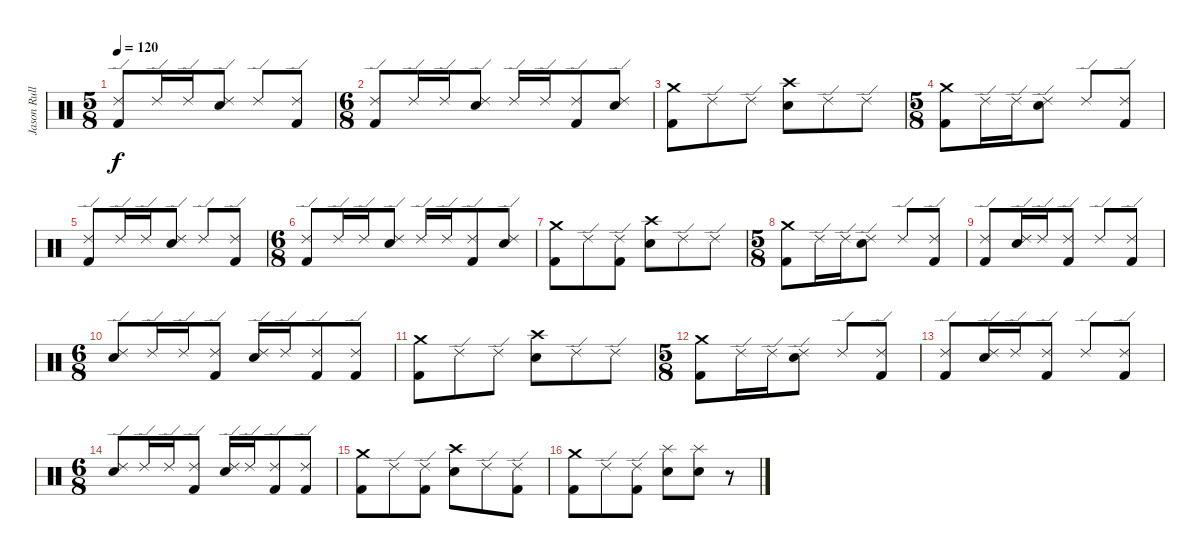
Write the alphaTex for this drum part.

\track ("Jason Rullo" "Jason Rull") {instrument percussion}
\staff {score}
\articulation defaults
\ts (5 8)
\tempo 120
\clef neutral
\ks c
("Kick (hit) 2" "Ride (edge) 2").8{dy f} "Ride (edge) 2".16 "Ride (edge) 2".16 ("Electric Snare (hit)" "Ride (edge) 2").8 "Ride (edge) 2".8 ("Kick (hit) 2" "Ride (edge) 2").8 |
\ts (6 8)
("Kick (hit) 2" "Ride (edge) 2").8 "Ride (edge) 2".16 "Ride (edge) 2".16 ("Electric Snare (hit)" "Ride (edge) 2").8 "Ride (edge) 2".16 "Ride (edge) 2".16 ("Kick (hit) 2" "Ride (edge) 2").8 ("Electric Snare (hit)" "Ride (edge) 2").8 |
("Kick (hit) 2" "Crash medium (hit)").8 "Ride (edge) 2".8 "Ride (edge) 2".8 ("Electric Snare (hit)" "Crash high (hit)").8 "Ride (edge) 2".8 "Ride (edge) 2".8 |
\ts (5 8)
("Kick (hit) 2" "Crash medium (hit)").8 "Ride (edge) 2".16 "Ride (edge) 2".16 ("Electric Snare (hit)" "Ride (edge) 2").8 "Ride (edge) 2".8 ("Kick (hit) 2" "Ride (edge) 2").8 |
("Kick (hit) 2" "Ride (edge) 2").8 "Ride (edge) 2".16 "Ride (edge) 2".16 ("Electric Snare (hit)" "Ride (edge) 2").8 "Ride (edge) 2".8 ("Kick (hit) 2" "Ride (edge) 2").8 |
\ts (6 8)
("Kick (hit) 2" "Ride (edge) 2").8 "Ride (edge) 2".16 "Ride (edge) 2".16 ("Electric Snare (hit)" "Ride (edge) 2").8 "Ride (edge) 2".16 "Ride (edge) 2".16 ("Kick (hit) 2" "Ride (edge) 2").8 ("Electric Snare (hit)" "Ride (edge) 2").8 |
("Kick (hit) 2" "Crash medium (hit)").8 "Ride (edge) 2".8 ("Kick (hit) 2" "Ride (edge) 2").8 ("Electric Snare (hit)" "Crash high (hit)").8 "Ride (edge) 2".8 "Ride (edge) 2".8 |
\ts (5 8)
("Kick (hit) 2" "Crash medium (hit)").8 "Ride (edge) 2".16 "Ride (edge) 2".16 ("Electric Snare (hit)" "Ride (edge) 2").8 "Ride (edge) 2".8 ("Kick (hit) 2" "Ride (edge) 2").8 |
("Kick (hit) 2" "Ride (edge) 2").8 ("Electric Snare (hit)" "Ride (edge) 2").16 "Ride (edge) 2".16 ("Kick (hit) 2" "Ride (edge) 2").8 "Ride (edge) 2".8 ("Kick (hit) 2" "Ride (edge) 2").8 |
\ts (6 8)
("Electric Snare (hit)" "Ride (edge) 2").8 "Ride (edge) 2".16 "Ride (edge) 2".16 ("Kick (hit) 2" "Ride (edge) 2").8 ("Electric Snare (hit)" "Ride (edge) 2").16 "Ride (edge) 2".16 ("Kick (hit) 2" "Ride (edge) 2").8 ("Kick (hit) 2" "Ride (edge) 2").8 |
("Kick (hit) 2" "Crash medium (hit)").8 "Ride (edge) 2".8 "Ride (edge) 2".8 ("Electric Snare (hit)" "Crash high (hit)").8 "Ride (edge) 2".8 "Ride (edge) 2".8 |
\ts (5 8)
("Kick (hit) 2" "Crash medium (hit)").8 "Ride (edge) 2".16 "Ride (edge) 2".16 ("Electric Snare (hit)" "Ride (edge) 2").8 "Ride (edge) 2".8 ("Kick (hit) 2" "Ride (edge) 2").8 |
("Kick (hit) 2" "Ride (edge) 2").8 ("Electric Snare (hit)" "Ride (edge) 2").16 "Ride (edge) 2".16 ("Kick (hit) 2" "Ride (edge) 2").8 "Ride (edge) 2".8 ("Kick (hit) 2" "Ride (edge) 2").8 |
\ts (6 8)
("Electric Snare (hit)" "Ride (edge) 2").8 "Ride (edge) 2".16 "Ride (edge) 2".16 ("Kick (hit) 2" "Ride (edge) 2").8 ("Electric Snare (hit)" "Ride (edge) 2").16 "Ride (edge) 2".16 ("Kick (hit) 2" "Ride (edge) 2").8 ("Kick (hit) 2" "Ride (edge) 2").8 |
("Kick (hit) 2" "Crash medium (hit)").8 "Ride (edge) 2".8 ("Kick (hit) 2" "Ride (edge) 2").8 ("Electric Snare (hit)" "Crash high (hit)").8 "Ride (edge) 2".8 ("Kick (hit) 2" "Ride (edge) 2").8 |
("Kick (hit) 2" "Crash medium (hit)").8 "Ride (edge) 2".8 ("Kick (hit) 2" "Ride (edge) 2").8 ("Splash (hit)" "Electric Snare (hit)").8 ("Electric Snare (hit)" "Splash (hit)").8 r.8
